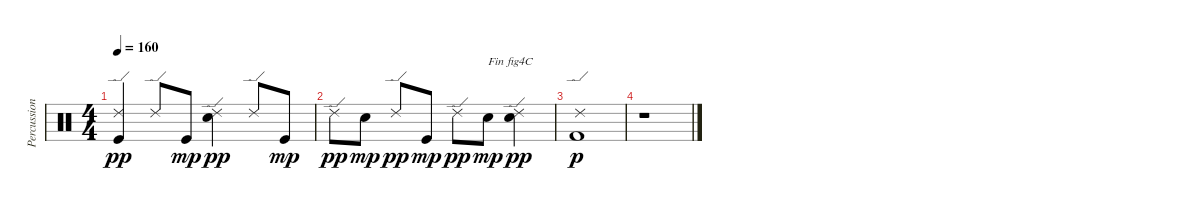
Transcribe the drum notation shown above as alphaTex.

\track ("Percussions" "Percussion") {instrument percussion}
\staff {score}
\articulation defaults
\ts (4 4)
\tempo 160
\clef neutral
\ks c
("Kick (hit)" "Ride (edge) 2").4{dy pp} "Ride (edge) 2".8 "Kick (hit)".8{dy mp} ("Snare (hit) 2" "Ride (edge) 2").4{dy pp} "Ride (edge) 2".8 "Kick (hit)".8{dy mp} |
"Ride (edge) 2".8{dy pp} "Snare (hit) 2".8{dy mp} "Ride (edge) 2".8{dy pp} "Kick (hit)".8{dy mp} "Ride (edge) 2".8{dy pp} "Snare (hit) 2".8{txt "Fin fig4C" dy mp} ("Snare (hit) 2" "Ride (edge) 2").4{dy pp} |
("Kick (hit) 2" "Ride (edge) 2").1{dy p} |
r.1
